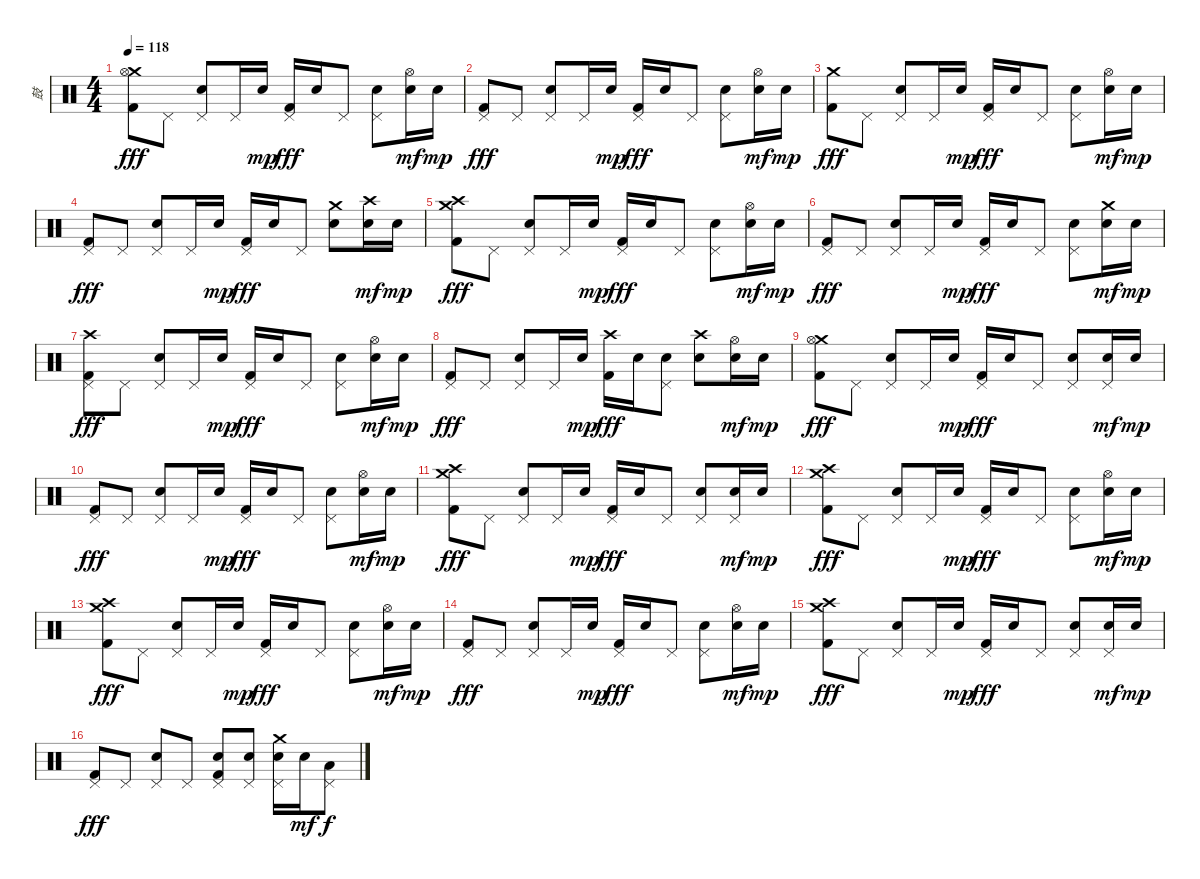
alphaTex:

\track ("鼓" "鼓") {instrument percussion}
\staff {score}
\articulation defaults
\ts (4 4)
\tempo 118
\clef neutral
\ks c
("Crash medium (hit)" "Hi-Hat (open)" "Kick (hit) 2").8{dy fff} "Pedal Hi-Hat (hit)".8 ("Pedal Hi-Hat (hit)" "Snare (hit) 2").8 "Pedal Hi-Hat (hit)".16 "Snare (hit) 2".16{dy mp} ("Pedal Hi-Hat (hit)" "Kick (hit) 2").16{dy fff} "Snare (hit) 2".16 "Pedal Hi-Hat (hit)".8 ("Pedal Hi-Hat (hit)" "Snare (hit) 2").8 ("Hi-Hat (open)" "Snare (hit) 2").16{dy mf} "Snare (hit) 2".16{dy mp} |
("Pedal Hi-Hat (hit)" "Kick (hit) 2").8{dy fff} "Pedal Hi-Hat (hit)".8 ("Pedal Hi-Hat (hit)" "Snare (hit) 2").8 "Pedal Hi-Hat (hit)".16 "Snare (hit) 2".16{dy mp} ("Pedal Hi-Hat (hit)" "Kick (hit) 2").16{dy fff} "Snare (hit) 2".16 "Pedal Hi-Hat (hit)".8 ("Pedal Hi-Hat (hit)" "Snare (hit) 2").8 ("Hi-Hat (open)" "Snare (hit) 2").16{dy mf} "Snare (hit) 2".16{dy mp} |
("Crash medium (hit)" "Kick (hit) 2").8{dy fff} "Pedal Hi-Hat (hit)".8 ("Pedal Hi-Hat (hit)" "Snare (hit) 2").8 "Pedal Hi-Hat (hit)".16 "Snare (hit) 2".16{dy mp} ("Pedal Hi-Hat (hit)" "Kick (hit) 2").16{dy fff} "Snare (hit) 2".16 "Pedal Hi-Hat (hit)".8 ("Pedal Hi-Hat (hit)" "Snare (hit) 2").8 ("Hi-Hat (open)" "Snare (hit) 2").16{dy mf} "Snare (hit) 2".16{dy mp} |
("Pedal Hi-Hat (hit)" "Kick (hit) 2").8{dy fff} "Pedal Hi-Hat (hit)".8 ("Pedal Hi-Hat (hit)" "Snare (hit) 2").8 "Pedal Hi-Hat (hit)".16 "Snare (hit) 2".16{dy mp} ("Pedal Hi-Hat (hit)" "Kick (hit) 2").16{dy fff} "Snare (hit) 2".16 "Pedal Hi-Hat (hit)".8 ("Crash medium (hit)" "Snare (hit) 2").8 ("Crash high (hit)" "Snare (hit) 2").16{dy mf} "Snare (hit) 2".16{dy mp} |
("Crash medium (hit)" "Crash high (hit)" "Kick (hit) 2").8{dy fff} "Pedal Hi-Hat (hit)".8 ("Pedal Hi-Hat (hit)" "Snare (hit) 2").8 "Pedal Hi-Hat (hit)".16 "Snare (hit) 2".16{dy mp} ("Pedal Hi-Hat (hit)" "Kick (hit) 2").16{dy fff} "Snare (hit) 2".16 "Pedal Hi-Hat (hit)".8 ("Pedal Hi-Hat (hit)" "Snare (hit) 2").8 ("Hi-Hat (open)" "Snare (hit) 2").16{dy mf} "Snare (hit) 2".16{dy mp} |
("Pedal Hi-Hat (hit)" "Kick (hit) 2").8{dy fff} "Pedal Hi-Hat (hit)".8 ("Pedal Hi-Hat (hit)" "Snare (hit) 2").8 "Pedal Hi-Hat (hit)".16 "Snare (hit) 2".16{dy mp} ("Pedal Hi-Hat (hit)" "Kick (hit) 2").16{dy fff} "Snare (hit) 2".16 "Pedal Hi-Hat (hit)".8 ("Pedal Hi-Hat (hit)" "Snare (hit) 2").8 ("Crash medium (hit)" "Snare (hit) 2").16{dy mf} "Snare (hit) 2".16{dy mp} |
("Pedal Hi-Hat (hit)" "Crash high (hit)" "Kick (hit) 2").8{dy fff} "Pedal Hi-Hat (hit)".8 ("Pedal Hi-Hat (hit)" "Snare (hit) 2").8 "Pedal Hi-Hat (hit)".16 "Snare (hit) 2".16{dy mp} ("Pedal Hi-Hat (hit)" "Kick (hit) 2").16{dy fff} "Snare (hit) 2".16 "Pedal Hi-Hat (hit)".8 ("Pedal Hi-Hat (hit)" "Snare (hit) 2").8 ("Hi-Hat (open)" "Snare (hit) 2").16{dy mf} "Snare (hit) 2".16{dy mp} |
("Pedal Hi-Hat (hit)" "Kick (hit) 2").8{dy fff} "Pedal Hi-Hat (hit)".8 ("Pedal Hi-Hat (hit)" "Snare (hit) 2").8 "Pedal Hi-Hat (hit)".16 "Snare (hit) 2".16{dy mp} ("Crash high (hit)" "Kick (hit) 2").16{dy fff} "Snare (hit) 2".16 ("Pedal Hi-Hat (hit)" "Snare (hit) 2").8 ("Crash high (hit)" "Snare (hit) 2").8 ("Hi-Hat (open)" "Snare (hit) 2").16{dy mf} "Snare (hit) 2".16{dy mp} |
("Crash medium (hit)" "Hi-Hat (open)" "Kick (hit) 2").8{dy fff} "Pedal Hi-Hat (hit)".8 ("Pedal Hi-Hat (hit)" "Snare (hit) 2").8 "Pedal Hi-Hat (hit)".16 "Snare (hit) 2".16{dy mp} ("Pedal Hi-Hat (hit)" "Kick (hit) 2").16{dy fff} "Snare (hit) 2".16 "Pedal Hi-Hat (hit)".8 ("Pedal Hi-Hat (hit)" "Snare (hit) 2").8 ("Pedal Hi-Hat (hit)" "Snare (hit) 2").16{dy mf} "Snare (hit) 2".16{dy mp} |
("Pedal Hi-Hat (hit)" "Kick (hit) 2").8{dy fff} "Pedal Hi-Hat (hit)".8 ("Pedal Hi-Hat (hit)" "Snare (hit) 2").8 "Pedal Hi-Hat (hit)".16 "Snare (hit) 2".16{dy mp} ("Pedal Hi-Hat (hit)" "Kick (hit) 2").16{dy fff} "Snare (hit) 2".16 "Pedal Hi-Hat (hit)".8 ("Pedal Hi-Hat (hit)" "Snare (hit) 2").8 ("Hi-Hat (open)" "Snare (hit) 2").16{dy mf} "Snare (hit) 2".16{dy mp} |
("Crash medium (hit)" "Crash high (hit)" "Kick (hit) 2").8{dy fff} "Pedal Hi-Hat (hit)".8 ("Pedal Hi-Hat (hit)" "Snare (hit) 2").8 "Pedal Hi-Hat (hit)".16 "Snare (hit) 2".16{dy mp} ("Pedal Hi-Hat (hit)" "Kick (hit) 2").16{dy fff} "Snare (hit) 2".16 "Pedal Hi-Hat (hit)".8 ("Pedal Hi-Hat (hit)" "Snare (hit) 2").8 ("Pedal Hi-Hat (hit)" "Snare (hit) 2").16{dy mf} "Snare (hit) 2".16{dy mp} |
("Crash high (hit)" "Crash medium (hit)" "Kick (hit) 2").8{dy fff} "Pedal Hi-Hat (hit)".8 ("Pedal Hi-Hat (hit)" "Snare (hit) 2").8 "Pedal Hi-Hat (hit)".16 "Snare (hit) 2".16{dy mp} ("Pedal Hi-Hat (hit)" "Kick (hit) 2").16{dy fff} "Snare (hit) 2".16 "Pedal Hi-Hat (hit)".8 ("Pedal Hi-Hat (hit)" "Snare (hit) 2").8 ("Hi-Hat (open)" "Snare (hit) 2").16{dy mf} "Snare (hit) 2".16{dy mp} |
("Crash medium (hit)" "Crash high (hit)" "Kick (hit) 2").8{dy fff} "Pedal Hi-Hat (hit)".8 ("Pedal Hi-Hat (hit)" "Snare (hit) 2").8 "Pedal Hi-Hat (hit)".16 "Snare (hit) 2".16{dy mp} ("Pedal Hi-Hat (hit)" "Kick (hit) 2").16{dy fff} "Snare (hit) 2".16 "Pedal Hi-Hat (hit)".8 ("Pedal Hi-Hat (hit)" "Snare (hit) 2").8 ("Hi-Hat (open)" "Snare (hit) 2").16{dy mf} "Snare (hit) 2".16{dy mp} |
("Pedal Hi-Hat (hit)" "Kick (hit) 2").8{dy fff} "Pedal Hi-Hat (hit)".8 ("Pedal Hi-Hat (hit)" "Snare (hit) 2").8 "Pedal Hi-Hat (hit)".16 "Snare (hit) 2".16{dy mp} ("Pedal Hi-Hat (hit)" "Kick (hit) 2").16{dy fff} "Snare (hit) 2".16 "Pedal Hi-Hat (hit)".8 ("Pedal Hi-Hat (hit)" "Snare (hit) 2").8 ("Hi-Hat (open)" "Snare (hit) 2").16{dy mf} "Snare (hit) 2".16{dy mp} |
("Crash medium (hit)" "Crash high (hit)" "Kick (hit) 2").8{dy fff} "Pedal Hi-Hat (hit)".8 ("Pedal Hi-Hat (hit)" "Snare (hit) 2").8 "Pedal Hi-Hat (hit)".16 "Snare (hit) 2".16{dy mp} ("Pedal Hi-Hat (hit)" "Kick (hit) 2").16{dy fff} "Snare (hit) 2".16 "Pedal Hi-Hat (hit)".8 ("Pedal Hi-Hat (hit)" "Snare (hit) 2").8 ("Pedal Hi-Hat (hit)" "Snare (hit) 2").16{dy mf} "Snare (hit) 2".16{dy mp} |
("Pedal Hi-Hat (hit)" "Kick (hit) 2").8{dy fff} "Pedal Hi-Hat (hit)".8 ("Pedal Hi-Hat (hit)" "Snare (hit) 2").8 "Pedal Hi-Hat (hit)".8 ("Pedal Hi-Hat (hit)" "Snare (hit) 2" "Kick (hit) 2").8 ("Pedal Hi-Hat (hit)" "Snare (hit) 2").8 ("Pedal Hi-Hat (hit)" "Crash medium (hit)" "Snare (hit) 2").16 "Snare (hit) 2".16{dy mf} ("Pedal Hi-Hat (hit)" "Low Tom (hit)").8{dy f}
